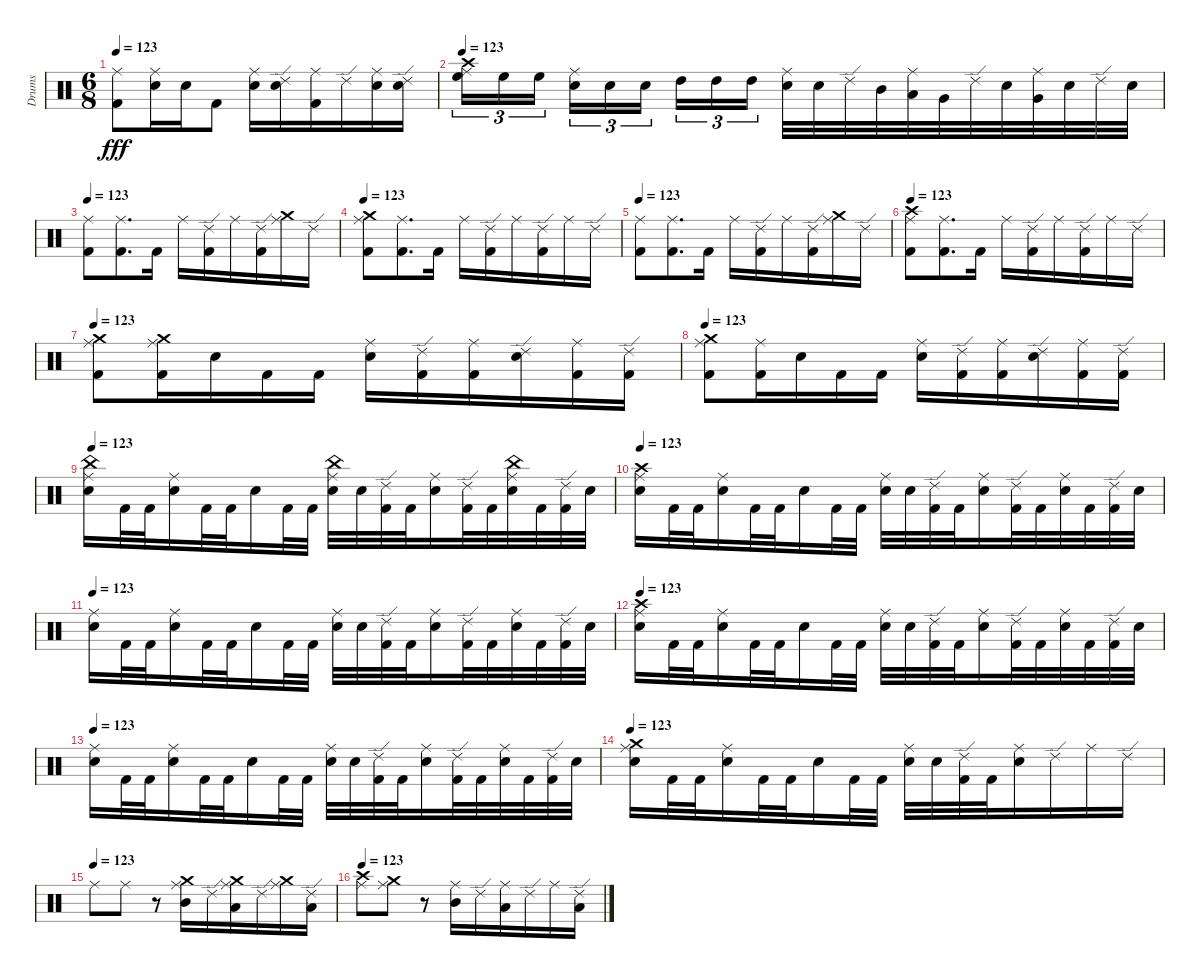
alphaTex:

\track ("Drums" "Drums") {instrument percussion}
\staff {score}
\articulation defaults
\ts (6 8)
\tempo 123
\clef neutral
\ks c
("Kick (hit) 2" "Ride (middle)").8{dy fff} ("Electric Snare (hit)" "Ride (middle)").16 "Snare (hit) 2".16 "Kick (hit) 2".8 ("Snare (hit) 2" "Ride (middle)").16 ("Electric Snare (hit)" "Ride (edge) 2").16 ("Kick (hit) 2" "Ride (middle)").16 "Ride (edge) 2".16 ("Snare (hit) 2" "Ride (middle)").16 ("Snare (hit) 2" "Ride (edge) 2").16 |
\tempo 123
("High Floor Tom (hit)" "Ride (middle)" "Crash high (hit)").16{tu (3 2)} "High Floor Tom (hit)".16{tu (3 2)} "High Floor Tom (hit)".16{tu (3 2) beam splitsecondary} ("Snare (hit) 2" "Ride (middle)").16{tu (3 2)} "Snare (hit) 2".16{tu (3 2)} "Snare (hit) 2".16{tu (3 2) beam splitsecondary} "High Tom (hit)".16{tu (3 2)} "High Tom (hit)".16{tu (3 2)} "High Tom (hit)".16{tu (3 2)} ("Electric Snare (hit)" "Ride (middle)").32 "Snare (hit) 2".32 "Ride (edge) 2".32 "Mid Tom (hit)".32 ("Low Tom (hit)" "Ride (middle)").32 "Very Low Tom (hit)".32 "Ride (edge) 2".32 "Snare (hit) 2".32 ("Very Low Tom (hit)" "Ride (middle)").32 "Electric Snare (hit)".32 "Ride (edge) 2".32 "Snare (hit) 2".32 |
\tempo 123
("Kick (hit) 2" "Ride (middle)").8 ("Kick (hit) 2" "Ride (middle)").8{d} "Kick (hit) 2".16 "Ride (middle)".16 ("Kick (hit) 2" "Ride (edge) 2").16 "Ride (middle)".16 ("Kick (hit) 2" "Ride (edge) 2").16 ("Ride (middle)" "Crash medium (hit)").16 "Ride (edge) 2".16 |
\tempo 123
("Kick (hit) 2" "Ride (middle)" "Crash medium (hit)").8 ("Kick (hit) 2" "Ride (middle)").8{d} "Kick (hit) 2".16 "Ride (middle)".16 ("Kick (hit) 2" "Ride (edge) 2").16 "Ride (middle)".16 ("Kick (hit) 2" "Ride (edge) 2").16 "Ride (middle)".16 "Ride (edge) 2".16 |
\tempo 123
("Kick (hit) 2" "Ride (middle)").8 ("Kick (hit) 2" "Ride (middle)").8{d} "Kick (hit) 2".16 "Ride (middle)".16 ("Kick (hit) 2" "Ride (edge) 2").16 "Ride (middle)".16 ("Kick (hit) 2" "Ride (edge) 2").16 ("Ride (middle)" "Crash medium (hit)").16 "Ride (edge) 2".16 |
\tempo 123
("Kick (hit) 2" "Ride (middle)" "Crash high (hit)").8 ("Kick (hit) 2" "Ride (middle)").8{d} "Kick (hit) 2".16 "Ride (middle)".16 ("Kick (hit) 2" "Ride (edge) 2").16 "Ride (middle)".16 ("Kick (hit) 2" "Ride (edge) 2").16 "Ride (middle)".16 "Ride (edge) 2".16 |
\tempo 123
("Kick (hit) 2" "Ride (middle)" "Crash medium (hit)").8 ("Kick (hit) 2" "Ride (middle)" "Crash medium (hit)").16 "Snare (hit) 2".16 "Kick (hit) 2".16 "Kick (hit) 2".16 ("Snare (hit) 2" "Ride (middle)").16 ("Kick (hit) 2" "Ride (edge) 2").16 ("Kick (hit) 2" "Ride (middle)").16 ("Snare (hit) 2" "Ride (edge) 2").16 ("Kick (hit) 2" "Ride (middle)").16 ("Kick (hit) 2" "Ride (edge) 2").16 |
\tempo 123
("Kick (hit) 2" "Ride (middle)" "Crash medium (hit)").8 ("Kick (hit) 2" "Ride (middle)").16 "Snare (hit) 2".16 "Kick (hit) 2".16 "Kick (hit) 2".16 ("Snare (hit) 2" "Ride (middle)").16 ("Kick (hit) 2" "Ride (edge) 2").16 ("Kick (hit) 2" "Ride (middle)").16 ("Snare (hit) 2" "Ride (edge) 2").16 ("Kick (hit) 2" "Ride (middle)").16 ("Kick (hit) 2" "Ride (edge) 2").16 |
\tempo 123
("Snare (hit) 2" "Ride (middle)" "China (hit)").16 "Kick (hit) 2".32 "Kick (hit) 2".32 ("Snare (hit) 2" "Ride (middle)").16 "Kick (hit) 2".32 "Kick (hit) 2".32 "Snare (hit) 2".16 "Kick (hit) 2".32 "Kick (hit) 2".32 ("Electric Snare (hit)" "Ride (middle)" "China (hit)").32 "Electric Snare (hit)".32 ("Kick (hit) 2" "Ride (edge) 2").32 "Kick (hit) 2".32 ("Electric Snare (hit)" "Ride (middle)").16 ("Kick (hit) 2" "Ride (edge) 2").32 "Kick (hit) 2".32 ("Snare (hit) 2" "Ride (middle)" "China (hit)").32 "Kick (hit) 2".32 ("Kick (hit) 2" "Ride (edge) 2").32 "Snare (hit) 2".32 |
\tempo 123
("Snare (hit) 2" "Ride (middle)" "Crash high (hit)").16 "Kick (hit) 2".32 "Kick (hit) 2".32 ("Snare (hit) 2" "Ride (middle)").16 "Kick (hit) 2".32 "Kick (hit) 2".32 "Snare (hit) 2".16 "Kick (hit) 2".32 "Kick (hit) 2".32 ("Electric Snare (hit)" "Ride (middle)").32 "Electric Snare (hit)".32 ("Kick (hit) 2" "Ride (edge) 2").32 "Kick (hit) 2".32 ("Electric Snare (hit)" "Ride (middle)").16 ("Kick (hit) 2" "Ride (edge) 2").32 "Kick (hit) 2".32 ("Snare (hit) 2" "Ride (middle)").32 "Kick (hit) 2".32 ("Kick (hit) 2" "Ride (edge) 2").32 "Snare (hit) 2".32 |
\tempo 123
("Snare (hit) 2" "Ride (middle)").16 "Kick (hit) 2".32 "Kick (hit) 2".32 ("Snare (hit) 2" "Ride (middle)").16 "Kick (hit) 2".32 "Kick (hit) 2".32 "Snare (hit) 2".16 "Kick (hit) 2".32 "Kick (hit) 2".32 ("Electric Snare (hit)" "Ride (middle)").32 "Electric Snare (hit)".32 ("Kick (hit) 2" "Ride (edge) 2").32 "Kick (hit) 2".32 ("Electric Snare (hit)" "Ride (middle)").16 ("Kick (hit) 2" "Ride (edge) 2").32 "Kick (hit) 2".32 ("Snare (hit) 2" "Ride (middle)").32 "Kick (hit) 2".32 ("Kick (hit) 2" "Ride (edge) 2").32 "Snare (hit) 2".32 |
\tempo 123
("Snare (hit) 2" "Ride (middle)" "Crash high (hit)").16 "Kick (hit) 2".32 "Kick (hit) 2".32 ("Snare (hit) 2" "Ride (middle)").16 "Kick (hit) 2".32 "Kick (hit) 2".32 "Snare (hit) 2".16 "Kick (hit) 2".32 "Kick (hit) 2".32 ("Electric Snare (hit)" "Ride (middle)").32 "Electric Snare (hit)".32 ("Kick (hit) 2" "Ride (edge) 2").32 "Kick (hit) 2".32 ("Electric Snare (hit)" "Ride (middle)").16 ("Kick (hit) 2" "Ride (edge) 2").32 "Kick (hit) 2".32 ("Snare (hit) 2" "Ride (middle)").32 "Kick (hit) 2".32 ("Kick (hit) 2" "Ride (edge) 2").32 "Snare (hit) 2".32 |
\tempo 123
("Snare (hit) 2" "Ride (middle)").16 "Kick (hit) 2".32 "Kick (hit) 2".32 ("Snare (hit) 2" "Ride (middle)").16 "Kick (hit) 2".32 "Kick (hit) 2".32 "Snare (hit) 2".16 "Kick (hit) 2".32 "Kick (hit) 2".32 ("Electric Snare (hit)" "Ride (middle)").32 "Electric Snare (hit)".32 ("Kick (hit) 2" "Ride (edge) 2").32 "Kick (hit) 2".32 ("Electric Snare (hit)" "Ride (middle)").16 ("Kick (hit) 2" "Ride (edge) 2").32 "Kick (hit) 2".32 ("Snare (hit) 2" "Ride (middle)").32 "Kick (hit) 2".32 ("Kick (hit) 2" "Ride (edge) 2").32 "Snare (hit) 2".32 |
\tempo 123
("Snare (hit) 2" "Ride (middle)" "Crash medium (hit)").16 "Kick (hit) 2".32 "Kick (hit) 2".32 ("Snare (hit) 2" "Ride (middle)").16 "Kick (hit) 2".32 "Kick (hit) 2".32 "Snare (hit) 2".16 "Kick (hit) 2".32 "Kick (hit) 2".32 ("Electric Snare (hit)" "Ride (middle)").32 "Electric Snare (hit)".32 ("Kick (hit) 2" "Ride (edge) 2").32 "Kick (hit) 2".32 ("Electric Snare (hit)" "Ride (middle)").16 "Ride (edge) 2".16 "Ride (middle)".16 "Ride (edge) 2".16 |
\tempo (123)
"Ride (middle)".8 "Ride (middle)".8 r.8 ("Mid Tom (hit)" "Ride (middle)" "Crash medium (hit)").16 "Ride (edge) 2".16 ("Low Tom (hit)" "Ride (middle)" "Crash medium (hit)").16 "Ride (edge) 2".16 ("Ride (middle)" "Crash medium (hit)").16 ("Low Tom (hit)" "Ride (edge) 2").16 |
\tempo 123
("Ride (middle)" "Crash high (hit)").8 ("Ride (middle)" "Crash medium (hit)").8 r.8 ("Mid Tom (hit)" "Ride (middle)").16 "Ride (edge) 2".16 ("Low Tom (hit)" "Ride (middle)").16 "Ride (edge) 2".16 "Ride (middle)".16 ("Low Tom (hit)" "Ride (edge) 2").16
